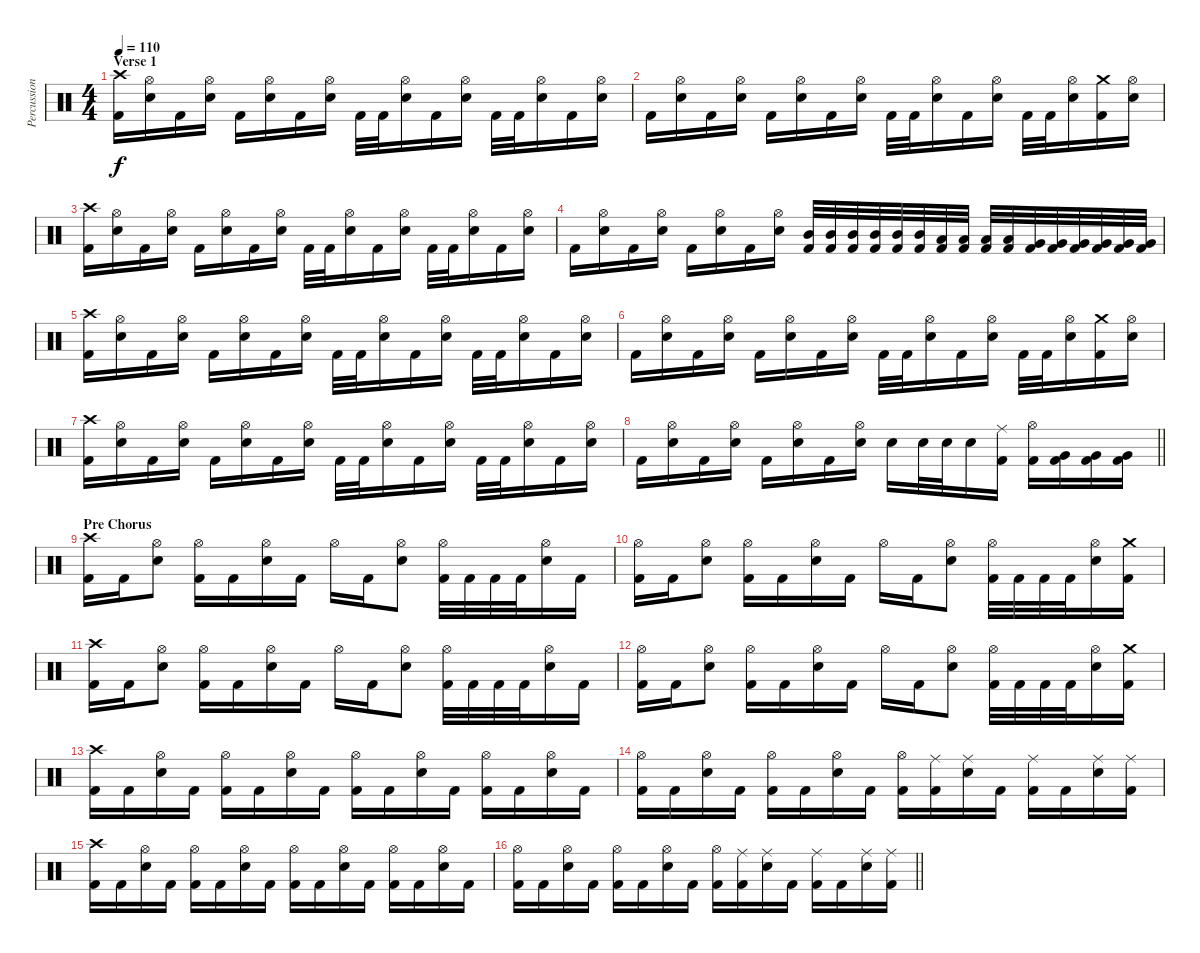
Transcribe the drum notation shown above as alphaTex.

\track ("Percussion" "Percussion") {instrument percussion}
\staff {score}
\articulation defaults
\ts (4 4)
\section ("" "Verse 1")
\tempo 110
\clef neutral
\ks c
("Kick (hit) 2" "Crash high (hit)").16{dy f} ("Hi-Hat (open)" "Snare (hit) 2").16 "Kick (hit) 2".16 ("Hi-Hat (open)" "Snare (hit) 2").16 "Kick (hit) 2".16 ("Hi-Hat (open)" "Snare (hit) 2").16 "Kick (hit) 2".16 ("Hi-Hat (open)" "Snare (hit) 2").16 "Kick (hit) 2".32 "Kick (hit) 2".32 ("Hi-Hat (open)" "Snare (hit) 2").16 "Kick (hit) 2".16 ("Hi-Hat (open)" "Snare (hit) 2").16 "Kick (hit) 2".32 "Kick (hit) 2".32 ("Hi-Hat (open)" "Snare (hit) 2").16 "Kick (hit) 2".16 ("Hi-Hat (open)" "Snare (hit) 2").16 |
"Kick (hit) 2".16 ("Hi-Hat (open)" "Snare (hit) 2").16 "Kick (hit) 2".16 ("Hi-Hat (open)" "Snare (hit) 2").16 "Kick (hit) 2".16 ("Hi-Hat (open)" "Snare (hit) 2").16 "Kick (hit) 2".16 ("Hi-Hat (open)" "Snare (hit) 2").16 "Kick (hit) 2".32 "Kick (hit) 2".32 ("Hi-Hat (open)" "Snare (hit) 2").16 "Kick (hit) 2".16 ("Hi-Hat (open)" "Snare (hit) 2").16 "Kick (hit) 2".32 "Kick (hit) 2".32 ("Hi-Hat (open)" "Snare (hit) 2").16 ("Kick (hit) 2" "Crash medium (hit)").16 ("Hi-Hat (open)" "Snare (hit) 2").16 |
("Kick (hit) 2" "Crash high (hit)").16 ("Hi-Hat (open)" "Snare (hit) 2").16 "Kick (hit) 2".16 ("Hi-Hat (open)" "Snare (hit) 2").16 "Kick (hit) 2".16 ("Hi-Hat (open)" "Snare (hit) 2").16 "Kick (hit) 2".16 ("Hi-Hat (open)" "Snare (hit) 2").16 "Kick (hit) 2".32 "Kick (hit) 2".32 ("Hi-Hat (open)" "Snare (hit) 2").16 "Kick (hit) 2".16 ("Hi-Hat (open)" "Snare (hit) 2").16 "Kick (hit) 2".32 "Kick (hit) 2".32 ("Hi-Hat (open)" "Snare (hit) 2").16 "Kick (hit) 2".16 ("Hi-Hat (open)" "Snare (hit) 2").16 |
"Kick (hit) 2".16 ("Hi-Hat (open)" "Snare (hit) 2").16 "Kick (hit) 2".16 ("Hi-Hat (open)" "Snare (hit) 2").16 "Kick (hit) 2".16 ("Hi-Hat (open)" "Snare (hit) 2").16 "Kick (hit) 2".16 ("Hi-Hat (open)" "Snare (hit) 2").16 ("Mid Tom (hit)" "Kick (hit) 2").32 ("Mid Tom (hit)" "Kick (hit) 2").32 ("Mid Tom (hit)" "Kick (hit) 2").32 ("Mid Tom (hit)" "Kick (hit) 2").32 ("Mid Tom (hit)" "Kick (hit) 2").32 ("Mid Tom (hit)" "Kick (hit) 2").32 ("Low Tom (hit)" "Kick (hit) 2").32 ("Low Tom (hit)" "Kick (hit) 2").32 ("Low Tom (hit)" "Kick (hit) 2").32 ("Low Tom (hit)" "Kick (hit) 2").32 ("Very Low Tom (hit)" "Kick (hit) 2").32 ("Very Low Tom (hit)" "Kick (hit) 2").32 ("Very Low Tom (hit)" "Kick (hit) 2").32 ("Very Low Tom (hit)" "Kick (hit) 2").32 ("Very Low Tom (hit)" "Kick (hit) 2").32 ("Very Low Tom (hit)" "Kick (hit) 2").32 |
("Kick (hit) 2" "Crash high (hit)").16 ("Hi-Hat (open)" "Snare (hit) 2").16 "Kick (hit) 2".16 ("Hi-Hat (open)" "Snare (hit) 2").16 "Kick (hit) 2".16 ("Hi-Hat (open)" "Snare (hit) 2").16 "Kick (hit) 2".16 ("Hi-Hat (open)" "Snare (hit) 2").16 "Kick (hit) 2".32 "Kick (hit) 2".32 ("Hi-Hat (open)" "Snare (hit) 2").16 "Kick (hit) 2".16 ("Hi-Hat (open)" "Snare (hit) 2").16 "Kick (hit) 2".32 "Kick (hit) 2".32 ("Hi-Hat (open)" "Snare (hit) 2").16 "Kick (hit) 2".16 ("Hi-Hat (open)" "Snare (hit) 2").16 |
"Kick (hit) 2".16 ("Hi-Hat (open)" "Snare (hit) 2").16 "Kick (hit) 2".16 ("Hi-Hat (open)" "Snare (hit) 2").16 "Kick (hit) 2".16 ("Hi-Hat (open)" "Snare (hit) 2").16 "Kick (hit) 2".16 ("Hi-Hat (open)" "Snare (hit) 2").16 "Kick (hit) 2".32 "Kick (hit) 2".32 ("Hi-Hat (open)" "Snare (hit) 2").16 "Kick (hit) 2".16 ("Hi-Hat (open)" "Snare (hit) 2").16 "Kick (hit) 2".32 "Kick (hit) 2".32 ("Hi-Hat (open)" "Snare (hit) 2").16 ("Kick (hit) 2" "Crash medium (hit)").16 ("Hi-Hat (open)" "Snare (hit) 2").16 |
("Kick (hit) 2" "Crash high (hit)").16 ("Hi-Hat (open)" "Snare (hit) 2").16 "Kick (hit) 2".16 ("Hi-Hat (open)" "Snare (hit) 2").16 "Kick (hit) 2".16 ("Hi-Hat (open)" "Snare (hit) 2").16 "Kick (hit) 2".16 ("Hi-Hat (open)" "Snare (hit) 2").16 "Kick (hit) 2".32 "Kick (hit) 2".32 ("Hi-Hat (open)" "Snare (hit) 2").16 "Kick (hit) 2".16 ("Hi-Hat (open)" "Snare (hit) 2").16 "Kick (hit) 2".32 "Kick (hit) 2".32 ("Hi-Hat (open)" "Snare (hit) 2").16 "Kick (hit) 2".16 ("Hi-Hat (open)" "Snare (hit) 2").16 |
\barLineRight lightlight "Kick (hit) 2".16
("Hi-Hat (open)" "Snare (hit) 2").16 "Kick (hit) 2".16 ("Hi-Hat (open)" "Snare (hit) 2").16 "Kick (hit) 2".16 ("Hi-Hat (open)" "Snare (hit) 2").16 "Kick (hit) 2".16 ("Hi-Hat (open)" "Snare (hit) 2").16 "Snare (hit) 2".16 "Snare (hit) 2".32 "Snare (hit) 2".32 "Snare (hit) 2".16 ("Ride (middle)" "Kick (hit) 2").16 ("Hi-Hat (open)" "Kick (hit) 2").16 ("Very Low Tom (hit)" "Kick (hit) 2").16 ("Very Low Tom (hit)" "Kick (hit) 2").16 ("Very Low Tom (hit)" "Kick (hit) 2").16 |
\section ("" "Pre Chorus")
("Kick (hit) 2" "Crash high (hit)").16 "Kick (hit) 2".16 ("Hi-Hat (open)" "Snare (hit) 2").8 ("Hi-Hat (open)" "Kick (hit) 2").16 "Kick (hit) 2".16 ("Hi-Hat (open)" "Snare (hit) 2").16 "Kick (hit) 2".16 "Hi-Hat (open)".16 "Kick (hit) 2".16 ("Hi-Hat (open)" "Snare (hit) 2").8 ("Hi-Hat (open)" "Kick (hit) 2").32 "Kick (hit) 2".32 "Kick (hit) 2".32 "Kick (hit) 2".32 ("Hi-Hat (open)" "Snare (hit) 2").16 "Kick (hit) 2".16 |
("Hi-Hat (open)" "Kick (hit) 2").16 "Kick (hit) 2".16 ("Hi-Hat (open)" "Snare (hit) 2").8 ("Hi-Hat (open)" "Kick (hit) 2").16 "Kick (hit) 2".16 ("Hi-Hat (open)" "Snare (hit) 2").16 "Kick (hit) 2".16 "Hi-Hat (open)".16 "Kick (hit) 2".16 ("Hi-Hat (open)" "Snare (hit) 2").8 ("Hi-Hat (open)" "Kick (hit) 2").32 "Kick (hit) 2".32 "Kick (hit) 2".32 "Kick (hit) 2".32 ("Hi-Hat (open)" "Snare (hit) 2").16 ("Kick (hit) 2" "Crash medium (hit)").16 |
("Kick (hit) 2" "Crash high (hit)").16 "Kick (hit) 2".16 ("Hi-Hat (open)" "Snare (hit) 2").8 ("Hi-Hat (open)" "Kick (hit) 2").16 "Kick (hit) 2".16 ("Hi-Hat (open)" "Snare (hit) 2").16 "Kick (hit) 2".16 "Hi-Hat (open)".16 "Kick (hit) 2".16 ("Hi-Hat (open)" "Snare (hit) 2").8 ("Hi-Hat (open)" "Kick (hit) 2").32 "Kick (hit) 2".32 "Kick (hit) 2".32 "Kick (hit) 2".32 ("Hi-Hat (open)" "Snare (hit) 2").16 "Kick (hit) 2".16 |
("Hi-Hat (open)" "Kick (hit) 2").16 "Kick (hit) 2".16 ("Hi-Hat (open)" "Snare (hit) 2").8 ("Hi-Hat (open)" "Kick (hit) 2").16 "Kick (hit) 2".16 ("Hi-Hat (open)" "Snare (hit) 2").16 "Kick (hit) 2".16 "Hi-Hat (open)".16 "Kick (hit) 2".16 ("Hi-Hat (open)" "Snare (hit) 2").8 ("Hi-Hat (open)" "Kick (hit) 2").32 "Kick (hit) 2".32 "Kick (hit) 2".32 "Kick (hit) 2".32 ("Hi-Hat (open)" "Snare (hit) 2").16 ("Kick (hit) 2" "Crash medium (hit)").16 |
("Kick (hit) 2" "Crash high (hit)").16 "Kick (hit) 2".16 ("Hi-Hat (open)" "Snare (hit) 2").16 "Kick (hit) 2".16 ("Hi-Hat (open)" "Kick (hit) 2").16 "Kick (hit) 2".16 ("Hi-Hat (open)" "Snare (hit) 2").16 "Kick (hit) 2".16 ("Hi-Hat (open)" "Kick (hit) 2").16 "Kick (hit) 2".16 ("Hi-Hat (open)" "Snare (hit) 2").16 "Kick (hit) 2".16 ("Hi-Hat (open)" "Kick (hit) 2").16 "Kick (hit) 2".16 ("Hi-Hat (open)" "Snare (hit) 2").16 "Kick (hit) 2".16 |
("Hi-Hat (open)" "Kick (hit) 2").16 "Kick (hit) 2".16 ("Hi-Hat (open)" "Snare (hit) 2").16 "Kick (hit) 2".16 ("Hi-Hat (open)" "Kick (hit) 2").16 "Kick (hit) 2".16 ("Hi-Hat (open)" "Snare (hit) 2").16 "Kick (hit) 2".16 ("Hi-Hat (open)" "Kick (hit) 2").16 ("Ride (middle)" "Kick (hit) 2").16 ("Ride (middle)" "Snare (hit) 2").16 "Kick (hit) 2".16 ("Ride (middle)" "Kick (hit) 2").16 "Kick (hit) 2".16 ("Ride (middle)" "Snare (hit) 2").16 ("Ride (middle)" "Kick (hit) 2").16 |
("Kick (hit) 2" "Crash high (hit)").16 "Kick (hit) 2".16 ("Hi-Hat (open)" "Snare (hit) 2").16 "Kick (hit) 2".16 ("Hi-Hat (open)" "Kick (hit) 2").16 "Kick (hit) 2".16 ("Hi-Hat (open)" "Snare (hit) 2").16 "Kick (hit) 2".16 ("Hi-Hat (open)" "Kick (hit) 2").16 "Kick (hit) 2".16 ("Hi-Hat (open)" "Snare (hit) 2").16 "Kick (hit) 2".16 ("Hi-Hat (open)" "Kick (hit) 2").16 "Kick (hit) 2".16 ("Hi-Hat (open)" "Snare (hit) 2").16 "Kick (hit) 2".16 |
\barLineRight lightlight
("Hi-Hat (open)" "Kick (hit) 2").16 "Kick (hit) 2".16 ("Hi-Hat (open)" "Snare (hit) 2").16 "Kick (hit) 2".16 ("Hi-Hat (open)" "Kick (hit) 2").16 "Kick (hit) 2".16 ("Hi-Hat (open)" "Snare (hit) 2").16 "Kick (hit) 2".16 ("Hi-Hat (open)" "Kick (hit) 2").16 ("Ride (middle)" "Kick (hit) 2").16 ("Ride (middle)" "Snare (hit) 2").16 "Kick (hit) 2".16 ("Ride (middle)" "Kick (hit) 2").16 "Kick (hit) 2".16 ("Ride (middle)" "Snare (hit) 2").16 ("Ride (middle)" "Kick (hit) 2").16
